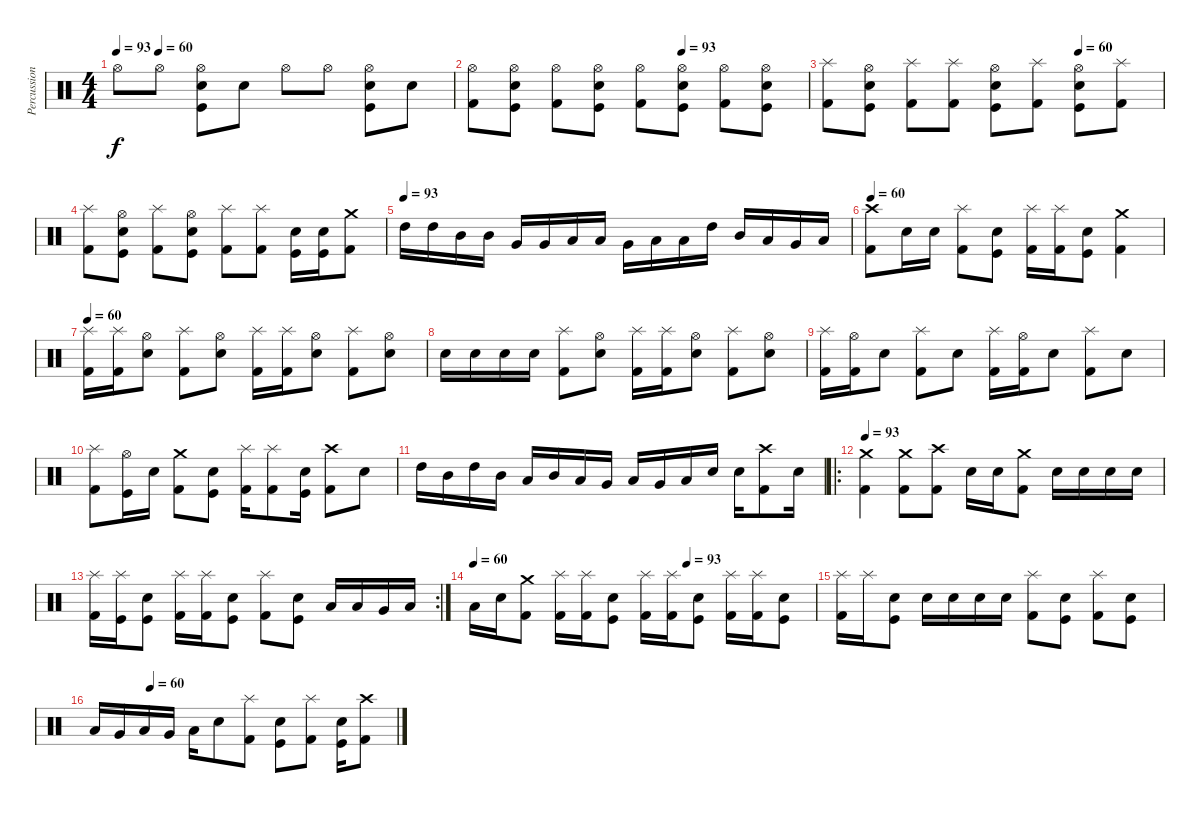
\track ("Percussion" "Percussion") {instrument percussion}
\staff {score}
\articulation defaults
\ts (4 4)
\tempo 93
\tempo 63
\tempo (60 0.125)
\tempo 93
\clef neutral
\ks c "Hi-Hat (open)".8{dy f} "Hi-Hat (open)".8
("Hi-Hat (open)" "Electric Snare (hit)" "Kick (hit)").8 "Electric Snare (hit)".8 "Hi-Hat (open)".8 "Hi-Hat (open)".8 ("Hi-Hat (open)" "Electric Snare (hit)" "Kick (hit)").8 "Electric Snare (hit)".8 |
\tempo (93 0.625)
("Hi-Hat (open)" "Kick (hit) 2").8 ("Hi-Hat (open)" "Electric Snare (hit)" "Kick (hit)").8 ("Hi-Hat (open)" "Kick (hit) 2").8 ("Hi-Hat (open)" "Electric Snare (hit)" "Kick (hit)").8 ("Hi-Hat (open)" "Kick (hit) 2").8 ("Hi-Hat (open)" "Electric Snare (hit)" "Kick (hit)").8 ("Hi-Hat (open)" "Kick (hit) 2").8 ("Hi-Hat (open)" "Electric Snare (hit)" "Kick (hit)").8 |
\tempo (60 0.75)
("Splash (hit)" "Kick (hit) 2").8 ("Hi-Hat (open)" "Electric Snare (hit)" "Kick (hit)").8 ("Splash (hit)" "Kick (hit) 2").8 ("Splash (hit)" "Kick (hit) 2").8 ("Hi-Hat (open)" "Electric Snare (hit)" "Kick (hit)").8 ("Splash (hit)" "Kick (hit) 2").8 ("Hi-Hat (open)" "Electric Snare (hit)" "Kick (hit)").8 ("Splash (hit)" "Kick (hit) 2").8 |
("Splash (hit)" "Kick (hit) 2").8 ("Hi-Hat (open)" "Electric Snare (hit)" "Kick (hit)").8 ("Splash (hit)" "Kick (hit) 2").8 ("Hi-Hat (open)" "Electric Snare (hit)" "Kick (hit)").8 ("Splash (hit)" "Kick (hit) 2").8 ("Splash (hit)" "Kick (hit) 2").8 ("Electric Snare (hit)" "Kick (hit)").16 ("Electric Snare (hit)" "Kick (hit)").16 ("Crash medium (hit)" "Kick (hit) 2").8 |
\tempo (93)
"High Tom (hit)".16 "High Tom (hit)".16 "Mid Tom (hit)".16 "Mid Tom (hit)".16 "Very Low Tom (hit)".16 "Very Low Tom (hit)".16 "Low Tom (hit)".16 "Low Tom (hit)".16 "Very Low Tom (hit)".16 "Low Floor Tom (hit)".16 "Low Floor Tom (hit)".16 "High Tom (hit)".16 "Mid Tom (hit)".16 "Low Tom (hit)".16 "Very Low Tom (hit)".16 "Low Floor Tom (hit)".16 |
\tempo 60
("Crash high (hit)" "Kick (hit) 2").8 "Electric Snare (hit)".16 "Electric Snare (hit)".16 ("Splash (hit)" "Kick (hit) 2").8 ("Electric Snare (hit)" "Kick (hit)").8 ("Splash (hit)" "Kick (hit) 2").16 ("Splash (hit)" "Kick (hit) 2").16 ("Electric Snare (hit)" "Kick (hit)").8 ("Crash medium (hit)" "Kick (hit) 2").4 |
\tempo 60
("Splash (hit)" "Kick (hit) 2").16 ("Splash (hit)" "Kick (hit) 2").16 ("Hi-Hat (open)" "Electric Snare (hit)").8 ("Splash (hit)" "Kick (hit) 2").8 ("Hi-Hat (open)" "Electric Snare (hit)").8 ("Splash (hit)" "Kick (hit) 2").16 ("Splash (hit)" "Kick (hit) 2").16 ("Hi-Hat (open)" "Electric Snare (hit)").8 ("Splash (hit)" "Kick (hit) 2").8 ("Hi-Hat (open)" "Electric Snare (hit)").8 |
"Electric Snare (hit)".16 "Electric Snare (hit)".16 "Electric Snare (hit)".16 "Electric Snare (hit)".16 ("Splash (hit)" "Kick (hit) 2").8 ("Hi-Hat (open)" "Electric Snare (hit)").8 ("Splash (hit)" "Kick (hit) 2").16 ("Splash (hit)" "Kick (hit) 2").16 ("Hi-Hat (open)" "Electric Snare (hit)").8 ("Splash (hit)" "Kick (hit) 2").8 ("Hi-Hat (open)" "Electric Snare (hit)").8 |
("Splash (hit)" "Kick (hit) 2").16 ("Hi-Hat (open)" "Kick (hit) 2").16 "Electric Snare (hit)".8 ("Splash (hit)" "Kick (hit) 2").8 "Electric Snare (hit)".8 ("Splash (hit)" "Kick (hit) 2").16 ("Hi-Hat (open)" "Kick (hit) 2").16 "Electric Snare (hit)".8 ("Splash (hit)" "Kick (hit) 2").8 "Electric Snare (hit)".8 |
("Splash (hit)" "Kick (hit) 2").8 ("Hi-Hat (open)" "Kick (hit)").16 "Electric Snare (hit)".16 ("Crash medium (hit)" "Kick (hit) 2").8 ("Electric Snare (hit)" "Kick (hit)").8 ("Splash (hit)" "Kick (hit) 2").16 ("Splash (hit)" "Kick (hit) 2").8 ("Electric Snare (hit)" "Kick (hit)").16 ("Crash high (hit)" "Kick (hit) 2").8 "Electric Snare (hit)".8 |
"High Tom (hit)".16 "Mid Tom (hit)".16 "High Tom (hit)".16 "Mid Tom (hit)".16 "Low Tom (hit)".16 "Mid Tom (hit)".16 "Low Tom (hit)".16 "Very Low Tom (hit)".16 "Low Tom (hit)".16 "Very Low Tom (hit)".16 "Low Floor Tom (hit)".16 "Electric Snare (hit)".16 "Electric Snare (hit)".16 ("Crash high (hit)" "Kick (hit) 2").8 "Electric Snare (hit)".16 |
\ro
\tempo 93
("Crash medium (hit)" "Kick (hit) 2").4 ("Crash medium (hit)" "Kick (hit) 2").8 ("Crash high (hit)" "Kick (hit) 2").8 "Electric Snare (hit)".16 "Electric Snare (hit)".16 ("Crash medium (hit)" "Kick (hit) 2").8 "Electric Snare (hit)".16 "Electric Snare (hit)".16 "Snare (hit) 2".16 "Electric Snare (hit)".16 |
\rc 2
("Splash (hit)" "Kick (hit) 2").16 ("Splash (hit)" "Kick (hit)").16 ("Electric Snare (hit)" "Kick (hit)").8 ("Splash (hit)" "Kick (hit) 2").16 ("Splash (hit)" "Kick (hit) 2").16 ("Electric Snare (hit)" "Kick (hit)").8 ("Splash (hit)" "Kick (hit) 2").8 ("Electric Snare (hit)" "Kick (hit)").8 "Low Tom (hit)".16 "Low Tom (hit)".16 "Very Low Tom (hit)".16 "Low Floor Tom (hit)".16 |
\tempo 60
\tempo (93 0.625)
"Low Floor Tom (hit)".16 "Electric Snare (hit)".16 ("Crash medium (hit)" "Kick (hit) 2").8 ("Splash (hit)" "Kick (hit) 2").16 ("Splash (hit)" "Kick (hit) 2").16 ("Electric Snare (hit)" "Kick (hit)").8 ("Splash (hit)" "Kick (hit) 2").16 ("Splash (hit)" "Kick (hit) 2").16 ("Electric Snare (hit)" "Kick (hit)").8 ("Splash (hit)" "Kick (hit) 2").16 ("Splash (hit)" "Kick (hit) 2").16 ("Electric Snare (hit)" "Kick (hit)").8 |
("Splash (hit)" "Kick (hit) 2").16 "Splash (hit)".16 ("Electric Snare (hit)" "Kick (hit)").8 "Electric Snare (hit)".16 "Electric Snare (hit)".16 "Electric Snare (hit)".16 "Electric Snare (hit)".16 ("Splash (hit)" "Kick (hit) 2").8 ("Electric Snare (hit)" "Kick (hit)").8 ("Splash (hit)" "Kick (hit) 2").8 ("Electric Snare (hit)" "Kick (hit)").8 |
\tempo (60 0.1875)
"Low Tom (hit)".16 "Very Low Tom (hit)".16 "Low Tom (hit)".16 "Very Low Tom (hit)".16 "Low Floor Tom (hit)".16 "Electric Snare (hit)".8 ("Splash (hit)" "Kick (hit) 2").8 ("Electric Snare (hit)" "Kick (hit)").8 ("Splash (hit)" "Kick (hit) 2").8 ("Electric Snare (hit)" "Kick (hit)").16 ("Crash high (hit)" "Kick (hit) 2").8
